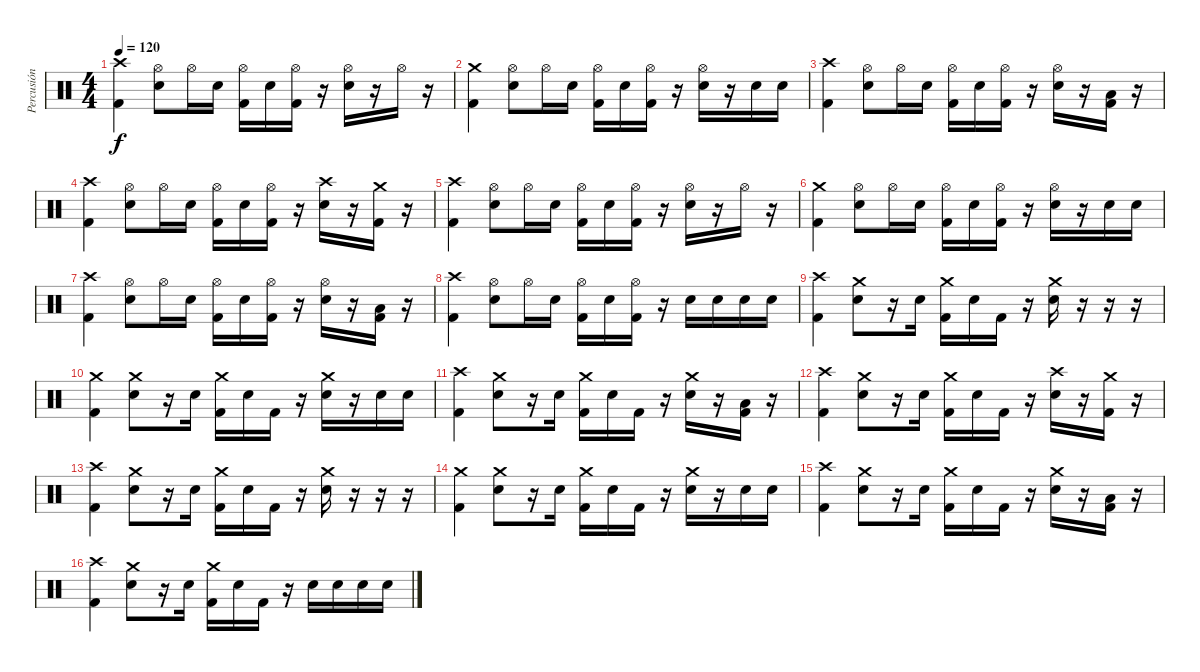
\track ("Percusión" "Percusión") {instrument percussion}
\staff {score}
\articulation defaults
\ts (4 4)
\tempo 120
\clef neutral
\ks c
("Crash high (hit)" "Kick (hit) 2").4{dy f} ("Hi-Hat (open)" "Electric Snare (hit)").8 "Hi-Hat (open)".16 "Electric Snare (hit)".16 ("Hi-Hat (open)" "Kick (hit) 2").16 "Electric Snare (hit)".16 ("Hi-Hat (open)" "Kick (hit) 2").16 r.16 ("Hi-Hat (open)" "Electric Snare (hit)").16 r.16 "Hi-Hat (open)".16 r.16 |
("Crash medium (hit)" "Kick (hit) 2").4 ("Hi-Hat (open)" "Electric Snare (hit)").8 "Hi-Hat (open)".16 "Electric Snare (hit)".16 ("Hi-Hat (open)" "Kick (hit) 2").16 "Electric Snare (hit)".16 ("Hi-Hat (open)" "Kick (hit) 2").16 r.16 ("Hi-Hat (open)" "Electric Snare (hit)").16 r.16 "Electric Snare (hit)".16 "Electric Snare (hit)".16 |
("Crash high (hit)" "Kick (hit) 2").4 ("Hi-Hat (open)" "Electric Snare (hit)").8 "Hi-Hat (open)".16 "Electric Snare (hit)".16 ("Hi-Hat (open)" "Kick (hit) 2").16 "Electric Snare (hit)".16 ("Hi-Hat (open)" "Kick (hit) 2").16 r.16 ("Hi-Hat (open)" "Electric Snare (hit)").16 r.16 ("Low Tom (hit)" "Kick (hit) 2").16 r.16 |
("Crash high (hit)" "Kick (hit) 2").4 ("Hi-Hat (open)" "Electric Snare (hit)").8 "Hi-Hat (open)".16 "Electric Snare (hit)".16 ("Hi-Hat (open)" "Kick (hit) 2").16 "Electric Snare (hit)".16 ("Hi-Hat (open)" "Kick (hit) 2").16 r.16 ("Crash high (hit)" "Electric Snare (hit)").16 r.16 ("Crash medium (hit)" "Kick (hit) 2").16 r.16 |
("Crash high (hit)" "Kick (hit) 2").4 ("Hi-Hat (open)" "Electric Snare (hit)").8 "Hi-Hat (open)".16 "Electric Snare (hit)".16 ("Hi-Hat (open)" "Kick (hit) 2").16 "Electric Snare (hit)".16 ("Hi-Hat (open)" "Kick (hit) 2").16 r.16 ("Hi-Hat (open)" "Electric Snare (hit)").16 r.16 "Hi-Hat (open)".16 r.16 |
("Crash medium (hit)" "Kick (hit) 2").4 ("Hi-Hat (open)" "Electric Snare (hit)").8 "Hi-Hat (open)".16 "Electric Snare (hit)".16 ("Hi-Hat (open)" "Kick (hit) 2").16 "Electric Snare (hit)".16 ("Hi-Hat (open)" "Kick (hit) 2").16 r.16 ("Hi-Hat (open)" "Electric Snare (hit)").16 r.16 "Electric Snare (hit)".16 "Electric Snare (hit)".16 |
("Crash high (hit)" "Kick (hit) 2").4 ("Hi-Hat (open)" "Electric Snare (hit)").8 "Hi-Hat (open)".16 "Electric Snare (hit)".16 ("Hi-Hat (open)" "Kick (hit) 2").16 "Electric Snare (hit)".16 ("Hi-Hat (open)" "Kick (hit) 2").16 r.16 ("Hi-Hat (open)" "Electric Snare (hit)").16 r.16 ("Low Tom (hit)" "Kick (hit) 2").16 r.16 |
("Crash high (hit)" "Kick (hit) 2").4 ("Hi-Hat (open)" "Electric Snare (hit)").8 "Hi-Hat (open)".16 "Electric Snare (hit)".16 ("Hi-Hat (open)" "Kick (hit) 2").16 "Electric Snare (hit)".16 ("Hi-Hat (open)" "Kick (hit) 2").16 r.16 "Electric Snare (hit)".16 "Electric Snare (hit)".16 "Electric Snare (hit)".16 "Electric Snare (hit)".16 |
("Crash high (hit)" "Kick (hit) 2").4 ("Crash medium (hit)" "Electric Snare (hit)").8 r.16 "Electric Snare (hit)".16 ("Crash medium (hit)" "Kick (hit) 2").16 "Electric Snare (hit)".16 "Kick (hit) 2".16 r.16 ("Crash medium (hit)" "Electric Snare (hit)").16 r.16 r.16 r.16 |
("Crash medium (hit)" "Kick (hit) 2").4 ("Crash medium (hit)" "Electric Snare (hit)").8 r.16 "Electric Snare (hit)".16 ("Crash medium (hit)" "Kick (hit) 2").16 "Electric Snare (hit)".16 "Kick (hit) 2".16 r.16 ("Crash medium (hit)" "Electric Snare (hit)").16 r.16 "Electric Snare (hit)".16 "Electric Snare (hit)".16 |
("Crash high (hit)" "Kick (hit) 2").4 ("Crash medium (hit)" "Electric Snare (hit)").8 r.16 "Electric Snare (hit)".16 ("Crash medium (hit)" "Kick (hit) 2").16 "Electric Snare (hit)".16 "Kick (hit) 2".16 r.16 ("Crash medium (hit)" "Electric Snare (hit)").16 r.16 ("Low Tom (hit)" "Kick (hit) 2").16 r.16 |
("Crash high (hit)" "Kick (hit) 2").4 ("Crash medium (hit)" "Electric Snare (hit)").8 r.16 "Electric Snare (hit)".16 ("Crash medium (hit)" "Kick (hit) 2").16 "Electric Snare (hit)".16 "Kick (hit) 2".16 r.16 ("Crash high (hit)" "Electric Snare (hit)").16 r.16 ("Crash medium (hit)" "Kick (hit) 2").16 r.16 |
("Crash high (hit)" "Kick (hit) 2").4 ("Crash medium (hit)" "Electric Snare (hit)").8 r.16 "Electric Snare (hit)".16 ("Crash medium (hit)" "Kick (hit) 2").16 "Electric Snare (hit)".16 "Kick (hit) 2".16 r.16 ("Crash medium (hit)" "Electric Snare (hit)").16 r.16 r.16 r.16 |
("Crash medium (hit)" "Kick (hit) 2").4 ("Crash medium (hit)" "Electric Snare (hit)").8 r.16 "Electric Snare (hit)".16 ("Crash medium (hit)" "Kick (hit) 2").16 "Electric Snare (hit)".16 "Kick (hit) 2".16 r.16 ("Crash medium (hit)" "Electric Snare (hit)").16 r.16 "Electric Snare (hit)".16 "Electric Snare (hit)".16 |
("Crash high (hit)" "Kick (hit) 2").4 ("Crash medium (hit)" "Electric Snare (hit)").8 r.16 "Electric Snare (hit)".16 ("Crash medium (hit)" "Kick (hit) 2").16 "Electric Snare (hit)".16 "Kick (hit) 2".16 r.16 ("Crash medium (hit)" "Electric Snare (hit)").16 r.16 ("Low Tom (hit)" "Kick (hit) 2").16 r.16 |
("Crash high (hit)" "Kick (hit) 2").4 ("Crash medium (hit)" "Electric Snare (hit)").8 r.16 "Electric Snare (hit)".16 ("Crash medium (hit)" "Kick (hit) 2").16 "Electric Snare (hit)".16 "Kick (hit) 2".16 r.16 "Electric Snare (hit)".16 "Electric Snare (hit)".16 "Electric Snare (hit)".16 "Electric Snare (hit)".16
